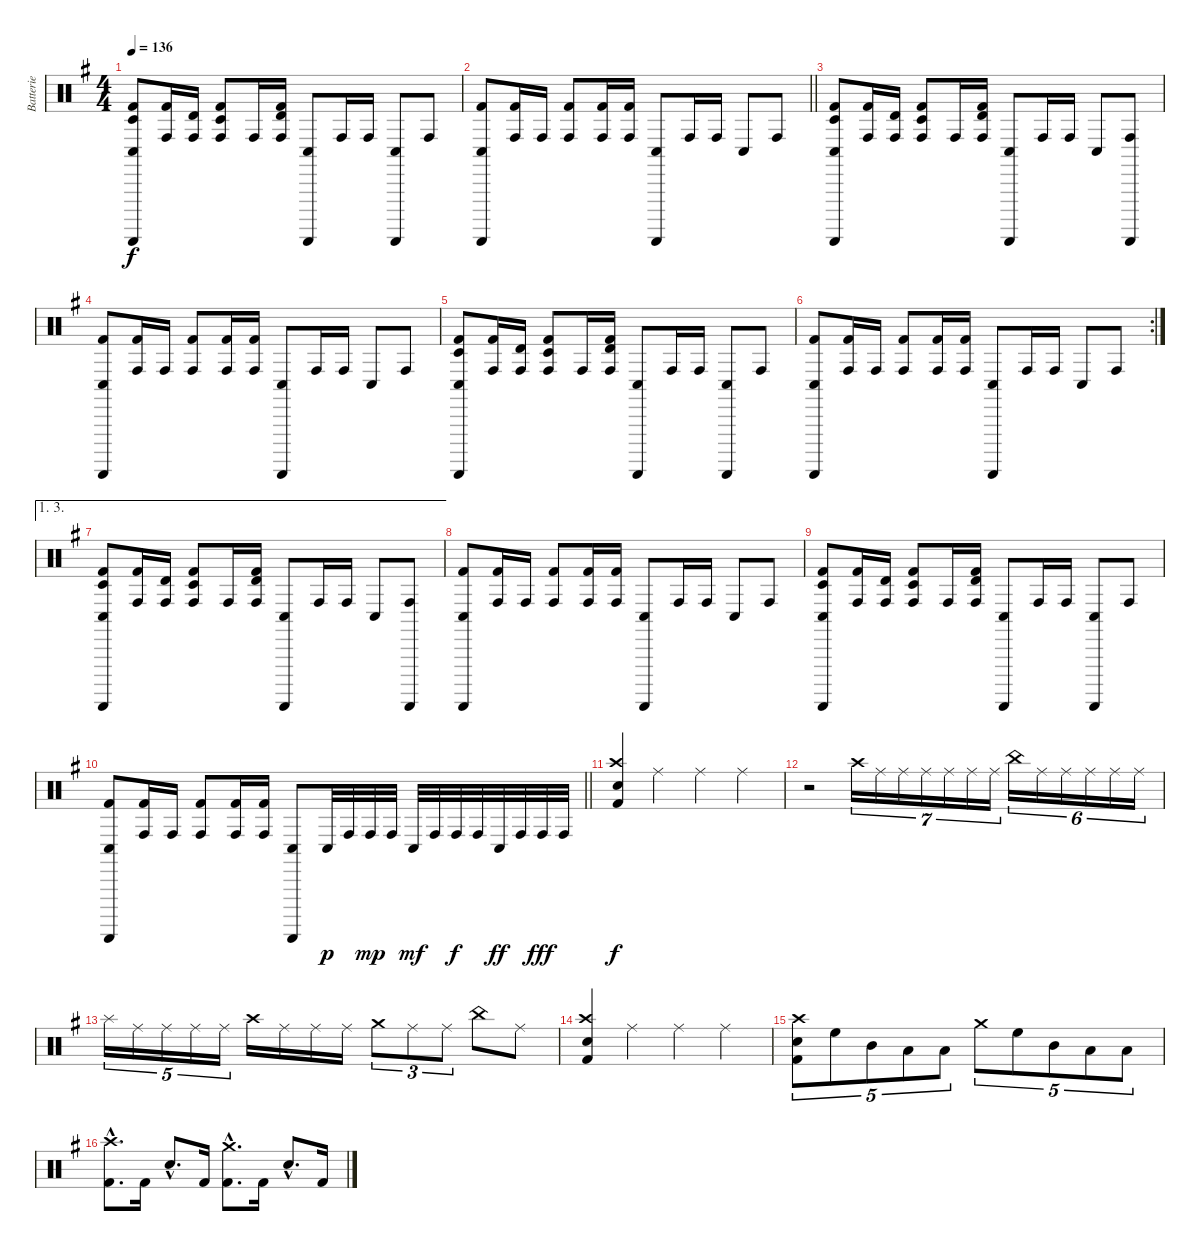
\track ("Batterie" "Batterie") {instrument percussion}
\staff {score}
\articulation defaults
\ts (4 4)
\tempo 136
\clef neutral
\ks g
("Conga low (hit)" "Timbale low (hit)" "Guiro (scrap-return)" "Kick (hit) 2").8{dy f} ("Conga high (hit)" "Kick (hit) 2").16 ("Conga high (hit)" "Timbale high (hit)").16 ("Conga high (hit)" "Timbale low (hit)" "Kick (hit) 2").8 "Conga high (hit)".16 ("Conga high (hit)" "Timbale high (hit)" "Kick (hit) 2").16 ("Conga low (hit)" "Guiro (scrap-return)").8 "Conga high (hit)".16 "Conga high (hit)".16 ("Conga low (hit)" "Guiro (scrap-return)").8 "Conga high (hit)".8 |
\barLineRight lightlight
("Conga low (hit)" "Guiro (scrap-return)" "Kick (hit) 2").8 ("Conga high (hit)" "Kick (hit) 2").16 "Conga high (hit)".16 ("Conga high (hit)" "Kick (hit) 2").8 ("Conga high (hit)" "Kick (hit) 2").16 ("Conga high (hit)" "Kick (hit) 2").16 ("Conga low (hit)" "Guiro (scrap-return)").8 "Conga high (hit)".16 "Conga high (hit)".16 "Conga low (hit)".8 "Conga high (hit)".8 |
("Conga low (hit)" "Timbale low (hit)" "Guiro (scrap-return)" "Kick (hit) 2").8 ("Conga high (hit)" "Kick (hit) 2").16 ("Conga high (hit)" "Timbale high (hit)").16 ("Conga high (hit)" "Timbale low (hit)" "Kick (hit) 2").8 "Conga high (hit)".16 ("Conga high (hit)" "Timbale high (hit)" "Kick (hit) 2").16 ("Conga low (hit)" "Guiro (scrap-return)").8 "Conga high (hit)".16 "Conga high (hit)".16 "Conga low (hit)".8 ("Conga high (hit)" "Guiro (scrap-return)").8 |
("Conga low (hit)" "Guiro (scrap-return)" "Kick (hit) 2").8 ("Conga high (hit)" "Kick (hit) 2").16 "Conga high (hit)".16 ("Conga high (hit)" "Kick (hit) 2").8 ("Conga high (hit)" "Kick (hit) 2").16 ("Conga high (hit)" "Kick (hit) 2").16 ("Conga low (hit)" "Guiro (scrap-return)").8 "Conga high (hit)".16 "Conga high (hit)".16 "Conga low (hit)".8 "Conga high (hit)".8 |
("Conga low (hit)" "Timbale low (hit)" "Guiro (scrap-return)" "Kick (hit) 2").8 ("Conga high (hit)" "Kick (hit) 2").16 ("Conga high (hit)" "Timbale high (hit)").16 ("Conga high (hit)" "Timbale low (hit)" "Kick (hit) 2").8 "Conga high (hit)".16 ("Conga high (hit)" "Timbale high (hit)" "Kick (hit) 2").16 ("Conga low (hit)" "Guiro (scrap-return)").8 "Conga high (hit)".16 "Conga high (hit)".16 ("Conga low (hit)" "Guiro (scrap-return)").8 "Conga high (hit)".8 |
\rc 2
("Conga low (hit)" "Guiro (scrap-return)" "Kick (hit) 2").8 ("Conga high (hit)" "Kick (hit) 2").16 "Conga high (hit)".16 ("Conga high (hit)" "Kick (hit) 2").8 ("Conga high (hit)" "Kick (hit) 2").16 ("Conga high (hit)" "Kick (hit) 2").16 ("Conga low (hit)" "Guiro (scrap-return)").8 "Conga high (hit)".16 "Conga high (hit)".16 "Conga low (hit)".8 "Conga high (hit)".8 |
\ae (1 3)
("Conga low (hit)" "Timbale low (hit)" "Guiro (scrap-return)" "Kick (hit) 2").8 ("Conga high (hit)" "Kick (hit) 2").16 ("Conga high (hit)" "Timbale high (hit)").16 ("Conga high (hit)" "Timbale low (hit)" "Kick (hit) 2").8 "Conga high (hit)".16 ("Conga high (hit)" "Timbale high (hit)" "Kick (hit) 2").16 ("Conga low (hit)" "Guiro (scrap-return)").8 "Conga high (hit)".16 "Conga high (hit)".16 "Conga low (hit)".8 ("Conga high (hit)" "Guiro (scrap-return)").8 |
("Conga low (hit)" "Guiro (scrap-return)" "Kick (hit) 2").8 ("Conga high (hit)" "Kick (hit) 2").16 "Conga high (hit)".16 ("Conga high (hit)" "Kick (hit) 2").8 ("Conga high (hit)" "Kick (hit) 2").16 ("Conga high (hit)" "Kick (hit) 2").16 ("Conga low (hit)" "Guiro (scrap-return)").8 "Conga high (hit)".16 "Conga high (hit)".16 "Conga low (hit)".8 "Conga high (hit)".8 |
("Conga low (hit)" "Timbale low (hit)" "Guiro (scrap-return)" "Kick (hit) 2").8 ("Conga high (hit)" "Kick (hit) 2").16 ("Conga high (hit)" "Timbale high (hit)").16 ("Conga high (hit)" "Timbale low (hit)" "Kick (hit) 2").8 "Conga high (hit)".16 ("Conga high (hit)" "Timbale high (hit)" "Kick (hit) 2").16 ("Conga low (hit)" "Guiro (scrap-return)").8 "Conga high (hit)".16 "Conga high (hit)".16 ("Conga low (hit)" "Guiro (scrap-return)").8 "Conga high (hit)".8 |
\barLineRight lightlight
("Conga low (hit)" "Guiro (scrap-return)" "Kick (hit) 2").8 ("Conga high (hit)" "Kick (hit) 2").16 "Conga high (hit)".16 ("Conga high (hit)" "Kick (hit) 2").8 ("Conga high (hit)" "Kick (hit) 2").16 ("Conga high (hit)" "Kick (hit) 2").16 ("Conga low (hit)" "Guiro (scrap-return)").8 "Conga low (hit)".32{dy p} "Conga high (hit)".32 "Conga high (hit)".32{dy mp} "Conga high (hit)".32 "Conga low (hit)".32{dy mf} "Conga high (hit)".32 "Conga high (hit)".32{dy f} "Conga high (hit)".32 "Conga low (hit)".32{dy ff} "Conga high (hit)".32 "Conga high (hit)".32{dy fff} "Conga high (hit)".32 |
("Crash high (hit)" "Snare (hit) 2" "Kick (hit) 2").4{dy f volume 16} "Ride (middle)".4 "Ride (middle)".4 "Ride (middle)".4 |
r.2 "Crash high (hit)".16{tu (7 4)} "Ride (middle)".16{tu (7 4)} "Ride (middle)".16{tu (7 4)} "Ride (middle)".16{tu (7 4)} "Ride (middle)".16{tu (7 4)} "Ride (middle)".16{tu (7 4)} "Ride (middle)".16{tu (7 4)} "China (hit)".16{tu (6 4)} "Ride (middle)".16{tu (6 4)} "Ride (middle)".16{tu (6 4)} "Ride (middle)".16{tu (6 4)} "Ride (middle)".16{tu (6 4)} "Ride (middle)".16{tu (6 4)} |
"Splash (hit)".16{tu (5 4)} "Ride (middle)".16{tu (5 4)} "Ride (middle)".16{tu (5 4)} "Ride (middle)".16{tu (5 4)} "Ride (middle)".16{tu (5 4)} "Crash high (hit)".16 "Ride (middle)".16 "Ride (middle)".16 "Ride (middle)".16 "Crash medium (hit)".8{tu (3 2)} "Ride (middle)".8{tu (3 2)} "Ride (middle)".8{tu (3 2)} "China (hit)".8 "Ride (middle)".8 |
("Crash high (hit)" "Snare (hit) 2" "Kick (hit) 2").4 "Ride (middle)".4 "Ride (middle)".4 "Ride (middle)".4 |
("Crash high (hit)" "Snare (hit) 2" "Kick (hit) 2").8{tu (5 4)} "High Floor Tom (hit)".8{tu (5 4)} "Mid Tom (hit)".8{tu (5 4)} "Low Tom (hit)".8{tu (5 4)} "Low Floor Tom (hit)".8{tu (5 4)} "Crash medium (hit)".8{tu (5 4)} "High Floor Tom (hit)".8{tu (5 4)} "Mid Tom (hit)".8{tu (5 4)} "Low Tom (hit)".8{tu (5 4)} "Low Floor Tom (hit)".8{tu (5 4)} |
("Crash high (hit)"{hac} "Kick (hit) 2"{hac}).8{d} "Kick (hit) 2".16 "Snare (hit) 2"{hac}.8{d} "Kick (hit) 2".16 ("Crash medium (hit)"{hac} "Kick (hit) 2"{hac}).8{d} "Kick (hit) 2".16 "Snare (hit) 2"{hac}.8{d} "Kick (hit) 2".16
